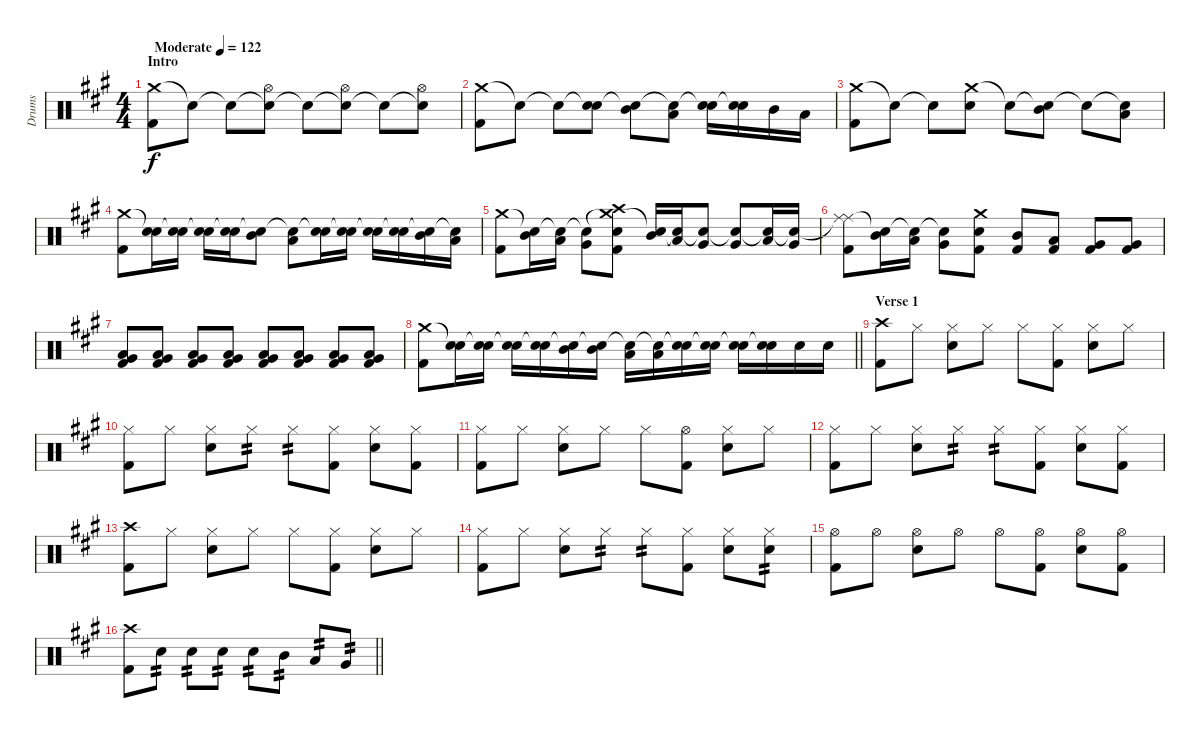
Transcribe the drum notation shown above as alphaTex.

\track ("Drums" "Drums") {instrument percussion}
\staff {score}
\articulation defaults
\ts (4 4)
\section ("" "Intro")
\tempo (122 "Moderate")
\clef neutral
\ks f#minor
("Crash medium (hit)" "Kick (hit) 2").8{dy f} "Snare (hit)"{t}.8 "Snare (hit)"{t}.8 ("Snare (hit)"{t} "Hi-Hat (open)").8 "Snare (hit)"{t}.8 ("Snare (hit)"{t} "Hi-Hat (open)").8 "Snare (hit)"{t}.8 ("Snare (hit)"{t} "Hi-Hat (open)").8 |
("Crash medium (hit)" "Kick (hit) 2").8 "Snare (hit)"{t}.8 "Snare (hit)"{t}.8 ("Snare (hit)"{t} "Snare (hit) 2").8 ("Snare (hit)"{t} "Mid Tom (hit)").8 ("Snare (hit)"{t} "Low Tom (hit)").8 ("Snare (hit)"{t} "Snare (hit) 2").16 ("Snare (hit)"{t} "Snare (hit) 2").16 "Mid Tom (hit)".16 "Low Tom (hit)".16 |
("Crash medium (hit)" "Kick (hit) 2").8 "Snare (hit)"{t}.8 "Snare (hit)"{t}.8 ("Crash medium (hit)" "Snare (hit) 2").8 "Snare (hit)"{t}.8 ("Snare (hit)"{t} "Mid Tom (hit)").8 "Snare (hit)"{t}.8 ("Snare (hit)"{t} "Low Tom (hit)").8 |
("Crash medium (hit)" "Kick (hit) 2").8 ("Snare (hit)"{t} "Snare (hit) 2").16 ("Snare (hit)"{t} "Snare (hit) 2").16 ("Snare (hit)"{t} "Snare (hit) 2").16 ("Snare (hit)"{t} "Snare (hit) 2").16 ("Snare (hit)"{t} "Mid Tom (hit)").8 ("Snare (hit)"{t} "Low Tom (hit)").8 ("Snare (hit)"{t} "Snare (hit) 2").16 ("Snare (hit)"{t} "Snare (hit) 2").16 ("Snare (hit)"{t} "Snare (hit) 2").16 ("Snare (hit)"{t} "Snare (hit) 2").16 ("Snare (hit)"{t} "Mid Tom (hit)").16 ("Snare (hit)"{t} "Low Tom (hit)").16 |
("Crash medium (hit)" "Kick (hit) 2").8 ("Snare (hit)"{t} "Mid Tom (hit)").16 ("Snare (hit)"{t} "Low Tom (hit)").16 ("Snare (hit)"{t} "Very Low Tom (hit)").8 ("Crash medium (hit)"{t} "Crash high (hit)" "Snare (hit) 2" "Kick (hit) 2").8 ("Snare (hit)"{t} "Mid Tom (hit)").16 ("Snare (hit)"{t} "Low Tom (hit)").16 ("Snare (hit)"{t} "Very Low Tom (hit)").8 ("Snare (hit)"{t} "Very Low Tom (hit)").8 ("Snare (hit)"{t} "Low Tom (hit)").16 ("Snare (hit)"{t} "Very Low Tom (hit)").16 |
("Ride (middle)"{t} "Ride (middle)" "Kick (hit) 2").8 ("Snare (hit)"{t} "Mid Tom (hit)").16 ("Snare (hit)"{t} "Low Tom (hit)").16 ("Snare (hit)"{t} "Very Low Tom (hit)").8 ("Crash medium (hit)" "Snare (hit) 2" "Kick (hit) 2").8 ("Mid Tom (hit)" "Kick (hit) 2").8 ("Low Tom (hit)" "Kick (hit) 2").8 ("Very Low Tom (hit)" "Kick (hit) 2").8 ("Very Low Tom (hit)" "Kick (hit) 2").8 |
("Low Tom (hit)" "Very Low Tom (hit)" "Kick (hit) 2").8 ("Low Tom (hit)" "Very Low Tom (hit)" "Kick (hit) 2").8 ("Low Tom (hit)" "Very Low Tom (hit)" "Kick (hit) 2").8 ("Low Tom (hit)" "Very Low Tom (hit)" "Kick (hit) 2").8 ("Low Tom (hit)" "Very Low Tom (hit)" "Kick (hit) 2").8 ("Low Tom (hit)" "Very Low Tom (hit)" "Kick (hit) 2").8 ("Low Tom (hit)" "Very Low Tom (hit)" "Kick (hit) 2").8 ("Low Tom (hit)" "Very Low Tom (hit)" "Kick (hit) 2").8 |
\barLineRight lightlight
("Crash medium (hit)" "Kick (hit) 2").8 ("Snare (hit)"{t} "Snare (hit) 2").16 ("Snare (hit)"{t} "Snare (hit) 2").16 ("Snare (hit)"{t} "Snare (hit) 2").16 ("Snare (hit)"{t} "Snare (hit) 2").16 ("Snare (hit)"{t} "Mid Tom (hit)").16 ("Snare (hit)"{t} "Mid Tom (hit)").16 ("Snare (hit)"{t} "Low Tom (hit)").16 ("Snare (hit)"{t} "Low Tom (hit)").16 ("Snare (hit)"{t} "Snare (hit) 2").16 ("Snare (hit)"{t} "Snare (hit) 2").16 ("Snare (hit)"{t} "Snare (hit) 2").16 ("Snare (hit)"{t} "Snare (hit) 2").16 "Snare (hit) 2".16 "Snare (hit) 2".16 |
\section ("" "Verse 1")
("Crash high (hit)" "Kick (hit) 2").8 "Hi-Hat (closed)".8 ("Hi-Hat (closed)" "Snare (hit) 2").8 "Hi-Hat (closed)".8 "Hi-Hat (closed)".8 ("Hi-Hat (closed)" "Kick (hit) 2").8 ("Hi-Hat (closed)" "Snare (hit) 2").8 "Hi-Hat (closed)".8 |
("Hi-Hat (closed)" "Kick (hit) 2").8 "Hi-Hat (closed)".8 ("Hi-Hat (closed)" "Snare (hit) 2").8 "Hi-Hat (closed)".8{tp 2} "Hi-Hat (closed)".8{tp 2} ("Hi-Hat (closed)" "Kick (hit) 2").8 ("Hi-Hat (closed)" "Snare (hit) 2").8 ("Hi-Hat (closed)" "Kick (hit) 2").8 |
("Hi-Hat (closed)" "Kick (hit) 2").8 "Hi-Hat (closed)".8 ("Hi-Hat (closed)" "Snare (hit) 2").8 "Hi-Hat (closed)".8 "Hi-Hat (closed)".8 ("Hi-Hat (open)" "Kick (hit) 2").8 ("Hi-Hat (closed)" "Snare (hit) 2").8 "Hi-Hat (closed)".8 |
("Hi-Hat (closed)" "Kick (hit) 2").8 "Hi-Hat (closed)".8 ("Hi-Hat (closed)" "Snare (hit) 2").8 "Hi-Hat (closed)".8{tp 2} "Hi-Hat (closed)".8{tp 2} ("Hi-Hat (closed)" "Kick (hit) 2").8 ("Hi-Hat (closed)" "Snare (hit) 2").8 ("Hi-Hat (closed)" "Kick (hit) 2").8 |
("Crash high (hit)" "Kick (hit) 2").8 "Hi-Hat (closed)".8 ("Hi-Hat (closed)" "Snare (hit) 2").8 "Hi-Hat (closed)".8 "Hi-Hat (closed)".8 ("Hi-Hat (closed)" "Kick (hit) 2").8 ("Hi-Hat (closed)" "Snare (hit) 2").8 "Hi-Hat (closed)".8 |
("Hi-Hat (closed)" "Kick (hit) 2").8 "Hi-Hat (closed)".8 ("Hi-Hat (closed)" "Snare (hit) 2").8 "Hi-Hat (closed)".8{tp 2} "Hi-Hat (closed)".8{tp 2} ("Hi-Hat (closed)" "Kick (hit) 2").8 ("Hi-Hat (closed)" "Snare (hit) 2").8 ("Hi-Hat (closed)" "Snare (hit) 2").8{tp 2} |
("Hi-Hat (open)" "Kick (hit) 2").8 "Hi-Hat (open)".8 ("Hi-Hat (open)" "Snare (hit) 2").8 "Hi-Hat (open)".8 "Hi-Hat (open)".8 ("Hi-Hat (open)" "Kick (hit) 2").8 ("Hi-Hat (open)" "Snare (hit) 2").8 ("Hi-Hat (open)" "Kick (hit) 2").8 |
\barLineRight lightlight
("Crash high (hit)" "Kick (hit) 2").8 "Snare (hit) 2".8{tp 2} "Snare (hit) 2".8{tp 2} "Snare (hit) 2".8{tp 2} "Snare (hit) 2".8{tp 2} "Mid Tom (hit)".8{tp 2} "Low Tom (hit)".8{tp 2} "Very Low Tom (hit)".8{tp 2}
